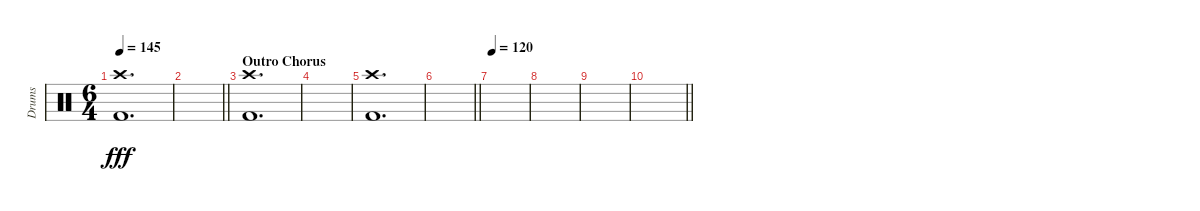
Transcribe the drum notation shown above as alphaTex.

\track ("Drums" "Drums") {instrument percussion}
\staff {score}
\articulation defaults
\ts (6 4)
\tempo 145
\clef neutral
\ks c
("Crash high (hit)" "Kick (hit) 2").1{d dy fff} |
\barLineRight lightlight
|
\section ("" "Outro Chorus")
("Crash high (hit)" "Kick (hit) 2").1{d} |
|
("Crash high (hit)" "Kick (hit) 2").1{d} |
\barLineRight lightlight
|
\tempo 120
|
|
|
\barLineRight lightlight
